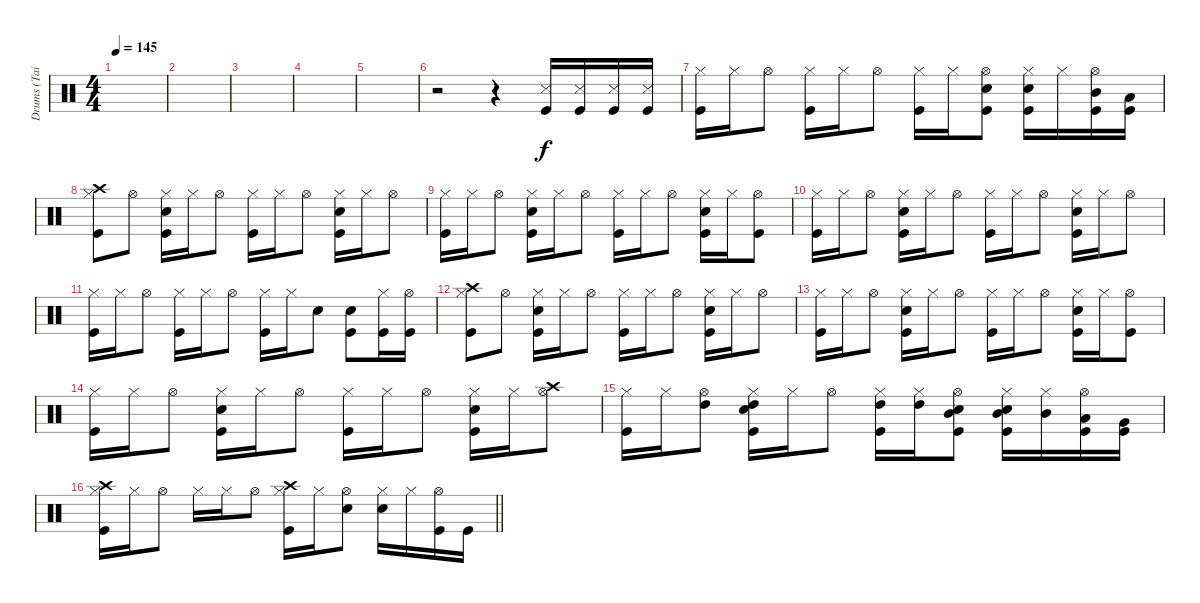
\track ("Drums (Tainaka Ritsu)" "Drums (Tai") {instrument percussion}
\staff {score}
\articulation defaults
\ts (4 4)
\tempo 145
\clef neutral
\ks c
|
|
|
|
|
r.2 r.4 ("Snare (side stick) 3" "Kick (hit)").16 ("Snare (side stick) 3" "Kick (hit)").16 ("Snare (side stick) 3" "Kick (hit)").16 ("Snare (side stick) 3" "Kick (hit)").16 |
("Hi-Hat (closed)" "Kick (hit)").16 "Hi-Hat (closed)".16 "Hi-Hat (open)".8 ("Hi-Hat (closed)" "Kick (hit)").16 "Hi-Hat (closed)".16 "Hi-Hat (open)".8 ("Hi-Hat (closed)" "Kick (hit)").16 "Hi-Hat (closed)".16 ("Hi-Hat (open)" "Snare (hit) 2" "Kick (hit)").8 ("Hi-Hat (closed)" "Snare (hit) 2" "Kick (hit)").16 "Hi-Hat (closed)".16 ("Hi-Hat (open)" "Mid Tom (hit)" "Kick (hit)").16 ("Low Tom (hit)" "Kick (hit)").16 |
("Crash high (hit)" "Hi-Hat (closed)" "Kick (hit)").8 "Hi-Hat (open)".8 ("Hi-Hat (closed)" "Snare (hit) 2" "Kick (hit)").16 "Hi-Hat (closed)".16 "Hi-Hat (open)".8 ("Hi-Hat (closed)" "Kick (hit)").16 "Hi-Hat (closed)".16 "Hi-Hat (open)".8 ("Hi-Hat (closed)" "Snare (hit) 2" "Kick (hit)").16 "Hi-Hat (closed)".16 "Hi-Hat (open)".8 |
("Hi-Hat (closed)" "Kick (hit)").16 "Hi-Hat (closed)".16 "Hi-Hat (open)".8 ("Hi-Hat (closed)" "Snare (hit) 2" "Kick (hit)").16 "Hi-Hat (closed)".16 "Hi-Hat (open)".8 ("Hi-Hat (closed)" "Kick (hit)").16 "Hi-Hat (closed)".16 "Hi-Hat (open)".8 ("Hi-Hat (closed)" "Snare (hit) 2" "Kick (hit)").16 "Hi-Hat (closed)".16 ("Hi-Hat (open)" "Kick (hit)").8 |
("Hi-Hat (closed)" "Kick (hit)").16 "Hi-Hat (closed)".16 "Hi-Hat (open)".8 ("Hi-Hat (closed)" "Snare (hit) 2" "Kick (hit)").16 "Hi-Hat (closed)".16 "Hi-Hat (open)".8 ("Hi-Hat (closed)" "Kick (hit)").16 "Hi-Hat (closed)".16 "Hi-Hat (open)".8 ("Hi-Hat (closed)" "Snare (hit) 2" "Kick (hit)").16 "Hi-Hat (closed)".16 "Hi-Hat (open)".8 |
("Hi-Hat (closed)" "Kick (hit)").16 "Hi-Hat (closed)".16 "Hi-Hat (open)".8 ("Hi-Hat (closed)" "Kick (hit)").16 "Hi-Hat (closed)".16 "Hi-Hat (open)".8 ("Hi-Hat (closed)" "Kick (hit)").16 "Hi-Hat (closed)".16 "Snare (hit) 2".8 ("Snare (hit) 2" "Kick (hit)").8 ("Hi-Hat (closed)" "Kick (hit)").16 ("Hi-Hat (open)" "Kick (hit)").16 |
("Crash high (hit)" "Hi-Hat (closed)" "Kick (hit)").8 "Hi-Hat (open)".8 ("Hi-Hat (closed)" "Snare (hit) 2" "Kick (hit)").16 "Hi-Hat (closed)".16 "Hi-Hat (open)".8 ("Hi-Hat (closed)" "Kick (hit)").16 "Hi-Hat (closed)".16 "Hi-Hat (open)".8 ("Hi-Hat (closed)" "Snare (hit) 2" "Kick (hit)").16 "Hi-Hat (closed)".16 "Hi-Hat (open)".8 |
("Hi-Hat (closed)" "Kick (hit)").16 "Hi-Hat (closed)".16 "Hi-Hat (open)".8 ("Hi-Hat (closed)" "Snare (hit) 2" "Kick (hit)").16 "Hi-Hat (closed)".16 "Hi-Hat (open)".8 ("Hi-Hat (closed)" "Kick (hit)").16 "Hi-Hat (closed)".16 "Hi-Hat (open)".8 ("Hi-Hat (closed)" "Snare (hit) 2" "Kick (hit)").16 "Hi-Hat (closed)".16 ("Hi-Hat (open)" "Kick (hit)").8 |
("Hi-Hat (closed)" "Kick (hit)").16 "Hi-Hat (closed)".16 "Hi-Hat (open)".8 ("Hi-Hat (closed)" "Snare (hit) 2" "Kick (hit)").16 "Hi-Hat (closed)".16 "Hi-Hat (open)".8 ("Hi-Hat (closed)" "Kick (hit)").16 "Hi-Hat (closed)".16 "Hi-Hat (open)".8 ("Hi-Hat (closed)" "Snare (hit) 2" "Kick (hit)").16 "Hi-Hat (closed)".16 ("Hi-Hat (open)" "Crash high (hit)").8 |
("Hi-Hat (closed)" "Kick (hit)").16 "Hi-Hat (closed)".16 ("Hi-Hat (open)" "High Tom (hit)").8 ("Hi-Hat (closed)" "Snare (hit) 2" "High Tom (hit)" "Kick (hit)").16 "Hi-Hat (closed)".16 "Hi-Hat (open)".8 ("Hi-Hat (closed)" "High Tom (hit)" "Kick (hit)").16 ("Hi-Hat (closed)" "High Tom (hit)").16 ("Hi-Hat (open)" "Snare (hit) 2" "Mid Tom (hit)" "Kick (hit)").8 ("Hi-Hat (closed)" "Snare (hit) 2" "Mid Tom (hit)" "Kick (hit)").16 ("Hi-Hat (closed)" "Mid Tom (hit)").16 ("Hi-Hat (open)" "Low Tom (hit)" "Kick (hit)").16 ("Very Low Tom (hit)" "Kick (hit)").16 |
\barLineRight lightlight
("Crash high (hit)" "Hi-Hat (closed)" "Kick (hit)").16 "Hi-Hat (closed)".16 "Hi-Hat (open)".8 "Hi-Hat (closed)".16 "Hi-Hat (closed)".16 "Hi-Hat (open)".8 ("Crash high (hit)" "Hi-Hat (closed)" "Kick (hit)").16 "Hi-Hat (closed)".16 ("Hi-Hat (open)" "Snare (hit) 2").8 ("Hi-Hat (closed)" "Snare (hit) 2").16 "Hi-Hat (closed)".16 ("Hi-Hat (open)" "Kick (hit)").16 "Kick (hit)".16
